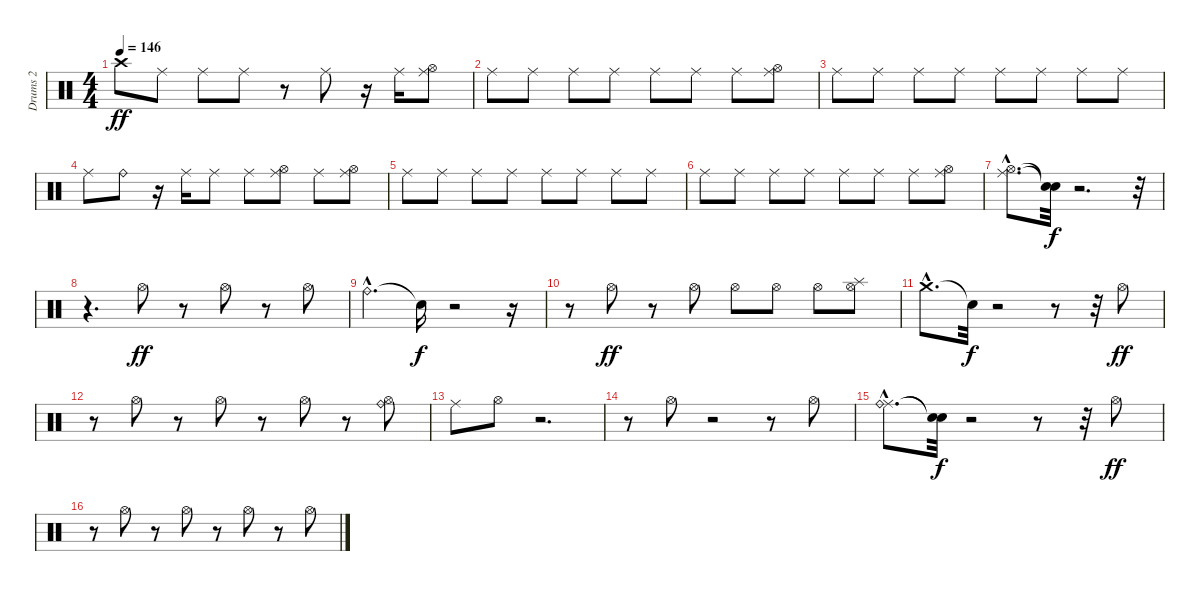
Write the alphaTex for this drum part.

\track ("Drums 2" "Drums 2") {instrument percussion}
\staff {score}
\articulation defaults
\ts (4 4)
\tempo 146
\clef neutral
\ks c "Crash high (hit)".8{dy ff} "Ride (middle)".8 "Ride (middle)".8 "Ride (middle)".8
r.8 "Ride (middle)".8 r.16 "Ride (middle)".16 ("Hi-Hat (open)" "Ride (middle)").8 |
"Ride (middle)".8 "Ride (middle)".8 "Ride (middle)".8 "Ride (middle)".8 "Ride (middle)".8 "Ride (middle)".8 "Ride (middle)".8 ("Hi-Hat (open)" "Ride (middle)").8 |
"Ride (middle)".8 "Ride (middle)".8 "Ride (middle)".8 "Ride (middle)".8 "Ride (middle)".8 "Ride (middle)".8 "Ride (middle)".8 "Ride (middle)".8 |
"Ride (middle)".8 "Ride (bell)".8 r.16 "Ride (middle)".16 "Ride (middle)".8 "Ride (middle)".8 ("Hi-Hat (open)" "Ride (middle)").8 "Ride (middle)".8 ("Hi-Hat (open)" "Ride (middle)").8 |
"Ride (middle)".8 "Ride (middle)".8 "Ride (middle)".8 "Ride (middle)".8 "Ride (middle)".8 "Ride (middle)".8 "Ride (middle)".8 "Ride (middle)".8 |
"Ride (middle)".8 "Ride (middle)".8 "Ride (middle)".8 "Ride (middle)".8 "Ride (middle)".8 "Ride (middle)".8 "Ride (middle)".8 ("Hi-Hat (open)" "Ride (middle)").8 |
("Hi-Hat (open)"{hac} "Ride (middle)"{hac}).8{d} ("Snare (hit)"{t} "Snare (hit)"{t}).32{dy f} r.2{d} r.32 |
r.4{d} "Hi-Hat (open)".8{dy ff} r.8 "Hi-Hat (open)".8 r.8 "Hi-Hat (open)".8 |
"Ride (bell)"{hac}.4{d} "Snare (hit)"{t}.16{dy f} r.2 r.16 |
r.8 "Hi-Hat (open)".8{dy ff} r.8 "Hi-Hat (open)".8 "Hi-Hat (open)".8 "Hi-Hat (open)".8 "Hi-Hat (open)".8 ("Hi-Hat (open)" "Splash (hit)").8 |
"Crash medium (hit)"{hac}.8{d} "Snare (hit)"{t}.32{dy f} r.2 r.8 r.32 "Hi-Hat (open)".8{dy ff} |
r.8 "Hi-Hat (open)".8 r.8 "Hi-Hat (open)".8 r.8 "Hi-Hat (open)".8 r.8 ("Hi-Hat (open)" "Ride (bell)").8 |
"Ride (middle)".8 "Hi-Hat (open)".8 r.2{d} |
r.8 "Hi-Hat (open)".8 r.2 r.8 "Hi-Hat (open)".8 |
("Ride (middle)"{hac} "Ride (bell)"{hac}).8{d} ("Snare (hit)"{t} "Snare (hit)"{t}).32{dy f} r.2 r.8 r.32 "Hi-Hat (open)".8{dy ff} |
r.8 "Hi-Hat (open)".8 r.8 "Hi-Hat (open)".8 r.8 "Hi-Hat (open)".8 r.8 "Hi-Hat (open)".8
